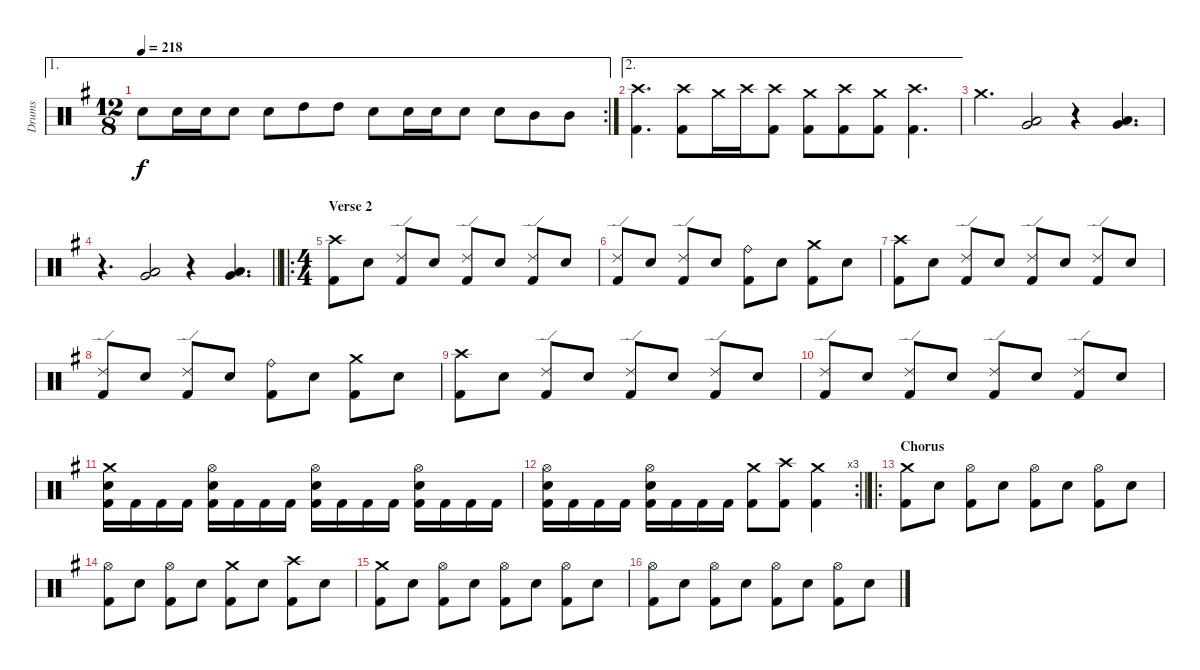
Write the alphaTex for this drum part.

\track ("Drums" "Drums") {solo instrument percussion}
\staff {score}
\articulation defaults
\ae 1
\rc 2
\ts (12 8)
\tempo 218
\clef neutral
\ks eminor "Electric Snare (hit)".8{dy f} "Electric Snare (hit)".16 "Electric Snare (hit)".16 "Electric Snare (hit)".8 "Electric Snare (hit)".8 "High Tom (hit)".8 "High Tom (hit)".8 "Electric Snare (hit)".8 "Electric Snare (hit)".16 "Electric Snare (hit)".16 "Electric Snare (hit)".8 "Electric Snare (hit)".8 "Mid Tom (hit)".8 "Mid Tom (hit)".8
|
\ae 2
("Crash high (hit)" "Kick (hit) 2").4{d} ("Crash high (hit)" "Kick (hit) 2").8 "Crash medium (hit)".16 "Crash high (hit)".16 ("Crash high (hit)" "Kick (hit) 2").8 ("Crash medium (hit)" "Kick (hit) 2").8 ("Crash high (hit)" "Kick (hit) 2").8 ("Crash medium (hit)" "Kick (hit) 2").8 ("Crash high (hit)" "Kick (hit) 2").4{d} |
"Crash medium (hit)".4{d} ("Low Tom (hit)" "Very Low Tom (hit)").2 r.4 ("Low Tom (hit)" "Very Low Tom (hit)").4{d} |
\barLineRight lightlight
r.4{d} ("Low Tom (hit)" "Very Low Tom (hit)").2 r.4 ("Low Tom (hit)" "Very Low Tom (hit)").4{d} |
\ro
\ts (4 4)
\section ("" "Verse 2")
("Crash high (hit)" "Kick (hit) 2").8 "Electric Snare (hit)".8 ("Ride (edge) 2" "Kick (hit) 2").8 "Electric Snare (hit)".8 ("Ride (edge) 2" "Kick (hit) 2").8 "Electric Snare (hit)".8 ("Ride (edge) 2" "Kick (hit) 2").8 "Electric Snare (hit)".8 |
("Ride (edge) 2" "Kick (hit) 2").8 "Electric Snare (hit)".8 ("Ride (edge) 2" "Kick (hit) 2").8 "Electric Snare (hit)".8 ("Ride (bell)" "Kick (hit) 2").8 "Electric Snare (hit)".8 ("Crash medium (hit)" "Kick (hit) 2").8 "Electric Snare (hit)".8 |
("Crash high (hit)" "Kick (hit) 2").8 "Electric Snare (hit)".8 ("Ride (edge) 2" "Kick (hit) 2").8 "Electric Snare (hit)".8 ("Ride (edge) 2" "Kick (hit) 2").8 "Electric Snare (hit)".8 ("Ride (edge) 2" "Kick (hit) 2").8 "Electric Snare (hit)".8 |
("Ride (edge) 2" "Kick (hit) 2").8 "Electric Snare (hit)".8 ("Ride (edge) 2" "Kick (hit) 2").8 "Electric Snare (hit)".8 ("Ride (bell)" "Kick (hit) 2").8 "Electric Snare (hit)".8 ("Crash medium (hit)" "Kick (hit) 2").8 "Electric Snare (hit)".8 |
("Crash high (hit)" "Kick (hit) 2").8 "Electric Snare (hit)".8 ("Ride (edge) 2" "Kick (hit) 2").8 "Electric Snare (hit)".8 ("Ride (edge) 2" "Kick (hit) 2").8 "Electric Snare (hit)".8 ("Ride (edge) 2" "Kick (hit) 2").8 "Electric Snare (hit)".8 |
("Ride (edge) 2" "Kick (hit) 2").8 "Electric Snare (hit)".8 ("Ride (edge) 2" "Kick (hit) 2").8 "Electric Snare (hit)".8 ("Ride (edge) 2" "Kick (hit) 2").8 "Electric Snare (hit)".8 ("Ride (edge) 2" "Kick (hit) 2").8 "Electric Snare (hit)".8 |
("Crash medium (hit)" "Electric Snare (hit)" "Kick (hit) 2").16 "Kick (hit) 2".16 "Kick (hit) 2".16 "Kick (hit) 2".16 ("Hi-Hat (open)" "Electric Snare (hit)" "Kick (hit) 2").16 "Kick (hit) 2".16 "Kick (hit) 2".16 "Kick (hit) 2".16 ("Hi-Hat (open)" "Electric Snare (hit)" "Kick (hit) 2").16 "Kick (hit) 2".16 "Kick (hit) 2".16 "Kick (hit) 2".16 ("Hi-Hat (open)" "Electric Snare (hit)" "Kick (hit) 2").16 "Kick (hit) 2".16 "Kick (hit) 2".16 "Kick (hit) 2".16 |
\rc 3
\barLineRight lightlight
("Hi-Hat (open)" "Electric Snare (hit)" "Kick (hit) 2").16 "Kick (hit) 2".16 "Kick (hit) 2".16 "Kick (hit) 2".16 ("Hi-Hat (open)" "Electric Snare (hit)" "Kick (hit) 2").16 "Kick (hit) 2".16 "Kick (hit) 2".16 "Kick (hit) 2".16 ("Crash medium (hit)" "Kick (hit) 2").8 ("Crash high (hit)" "Kick (hit) 2").8 ("Crash medium (hit)" "Kick (hit) 2").4 |
\ro
\section ("" "Chorus")
("Crash medium (hit)" "Kick (hit) 2").8 "Electric Snare (hit)".8 ("Hi-Hat (open)" "Kick (hit) 2").8 "Electric Snare (hit)".8 ("Hi-Hat (open)" "Kick (hit) 2").8 "Electric Snare (hit)".8 ("Hi-Hat (open)" "Kick (hit) 2").8 "Electric Snare (hit)".8 |
("Hi-Hat (open)" "Kick (hit) 2").8 "Electric Snare (hit)".8 ("Hi-Hat (open)" "Kick (hit) 2").8 "Electric Snare (hit)".8 ("Crash medium (hit)" "Kick (hit) 2").8 "Electric Snare (hit)".8 ("Crash high (hit)" "Kick (hit) 2").8 "Electric Snare (hit)".8 |
("Crash medium (hit)" "Kick (hit) 2").8 "Electric Snare (hit)".8 ("Hi-Hat (open)" "Kick (hit) 2").8 "Electric Snare (hit)".8 ("Hi-Hat (open)" "Kick (hit) 2").8 "Electric Snare (hit)".8 ("Hi-Hat (open)" "Kick (hit) 2").8 "Electric Snare (hit)".8 |
("Hi-Hat (open)" "Kick (hit) 2").8 "Electric Snare (hit)".8 ("Hi-Hat (open)" "Kick (hit) 2").8 "Electric Snare (hit)".8 ("Hi-Hat (open)" "Kick (hit) 2").8 "Electric Snare (hit)".8 ("Hi-Hat (open)" "Kick (hit) 2").8 "Electric Snare (hit)".8
